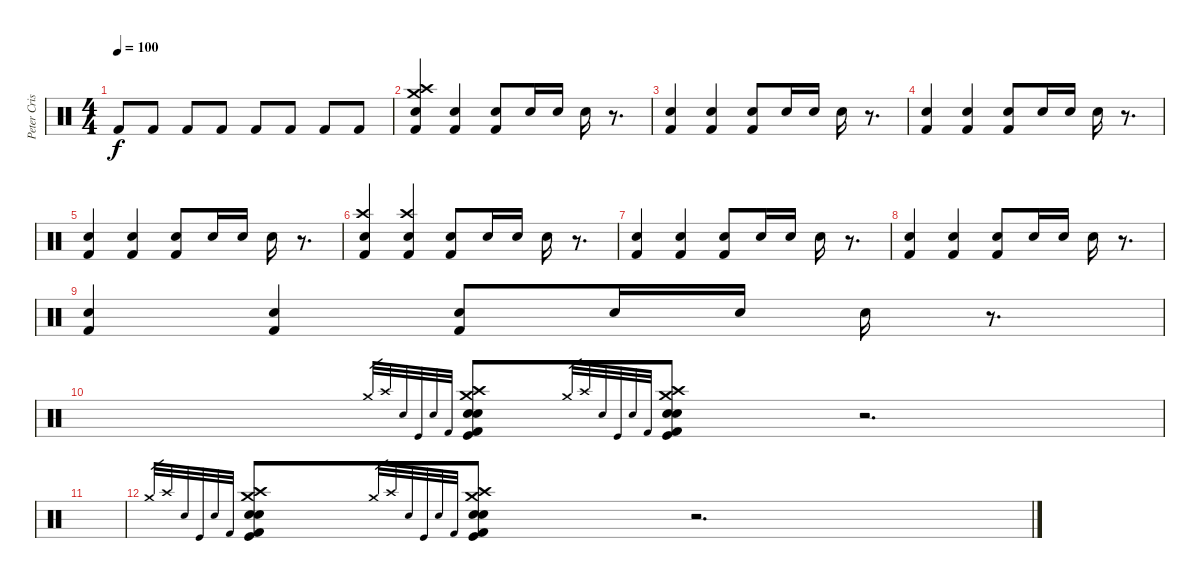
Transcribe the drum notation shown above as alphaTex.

\track ("Peter Criss" "Peter Cris") {instrument percussion}
\staff {score}
\articulation defaults
\ts (4 4)
\tempo 100
\clef neutral
\ks c "Kick (hit) 2".8{dy f} "Kick (hit) 2".8 "Kick (hit) 2".8 "Kick (hit) 2".8 "Kick (hit) 2".8 "Kick (hit) 2".8 "Kick (hit) 2".8 "Kick (hit) 2".8
|
("Crash high (hit)" "Crash medium (hit)" "Snare (hit) 2" "Kick (hit) 2").4 ("Snare (hit) 2" "Kick (hit) 2").4 ("Snare (hit) 2" "Kick (hit) 2").8 "Snare (hit) 2".16 "Snare (hit) 2".16 "Snare (hit) 2".16 r.8{d} |
("Snare (hit) 2" "Kick (hit) 2").4 ("Snare (hit) 2" "Kick (hit) 2").4 ("Snare (hit) 2" "Kick (hit) 2").8 "Snare (hit) 2".16 "Snare (hit) 2".16 "Snare (hit) 2".16 r.8{d} |
("Snare (hit) 2" "Kick (hit) 2").4 ("Snare (hit) 2" "Kick (hit) 2").4 ("Snare (hit) 2" "Kick (hit) 2").8 "Snare (hit) 2".16 "Snare (hit) 2".16 "Snare (hit) 2".16 r.8{d} |
("Snare (hit) 2" "Kick (hit) 2").4 ("Snare (hit) 2" "Kick (hit) 2").4 ("Snare (hit) 2" "Kick (hit) 2").8 "Snare (hit) 2".16 "Snare (hit) 2".16 "Snare (hit) 2".16 r.8{d} |
("Crash high (hit)" "Snare (hit) 2" "Kick (hit) 2").4 ("Crash high (hit)" "Snare (hit) 2" "Kick (hit) 2").4 ("Snare (hit) 2" "Kick (hit) 2").8 "Snare (hit) 2".16 "Snare (hit) 2".16 "Snare (hit) 2".16 r.8{d} |
("Snare (hit) 2" "Kick (hit) 2").4 ("Snare (hit) 2" "Kick (hit) 2").4 ("Snare (hit) 2" "Kick (hit) 2").8 "Snare (hit) 2".16 "Snare (hit) 2".16 "Snare (hit) 2".16 r.8{d} |
("Snare (hit) 2" "Kick (hit) 2").4 ("Snare (hit) 2" "Kick (hit) 2").4 ("Snare (hit) 2" "Kick (hit) 2").8 "Snare (hit) 2".16 "Snare (hit) 2".16 "Snare (hit) 2".16 r.8{d} |
("Snare (hit) 2" "Kick (hit) 2").4 ("Snare (hit) 2" "Kick (hit) 2").4 ("Snare (hit) 2" "Kick (hit) 2").8 "Snare (hit) 2".16 "Snare (hit) 2".16 "Snare (hit) 2".16 r.8{d} |
"Crash medium (hit)".32{gr} "Crash high (hit)".32{gr} "Snare (hit) 2".32{gr} "Kick (hit)".32{gr} "Electric Snare (hit)".32{gr} "Kick (hit) 2".32{gr} ("Crash medium (hit)" "Crash high (hit)" "Snare (hit) 2" "Kick (hit)" "Electric Snare (hit)" "Kick (hit) 2").8 "Crash medium (hit)".32{gr} "Crash high (hit)".32{gr} "Snare (hit) 2".32{gr} "Kick (hit)".32{gr} "Electric Snare (hit)".32{gr} "Kick (hit) 2".32{gr} ("Crash medium (hit)" "Crash high (hit)" "Snare (hit) 2" "Kick (hit)" "Electric Snare (hit)" "Kick (hit) 2").8 r.2{d} |
|
"Crash medium (hit)".32{gr} "Crash high (hit)".32{gr} "Snare (hit) 2".32{gr} "Kick (hit)".32{gr} "Electric Snare (hit)".32{gr} "Kick (hit) 2".32{gr} ("Crash medium (hit)" "Crash high (hit)" "Snare (hit) 2" "Kick (hit)" "Electric Snare (hit)" "Kick (hit) 2").8 "Crash medium (hit)".32{gr} "Crash high (hit)".32{gr} "Snare (hit) 2".32{gr} "Kick (hit)".32{gr} "Electric Snare (hit)".32{gr} "Kick (hit) 2".32{gr} ("Crash medium (hit)" "Crash high (hit)" "Snare (hit) 2" "Kick (hit)" "Electric Snare (hit)" "Kick (hit) 2").8 r.2{d}
